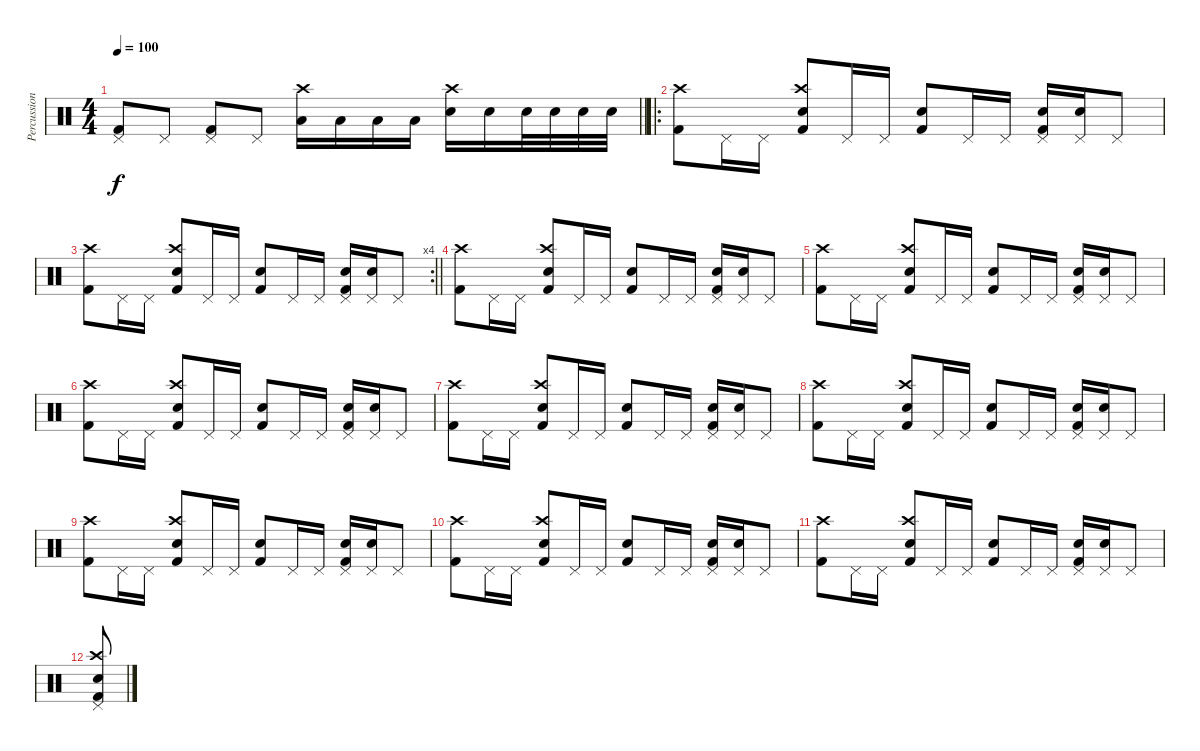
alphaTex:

\track ("Percussion" "Percussion") {instrument percussion}
\staff {score}
\articulation defaults
\ts (4 4)
\tempo 100
\clef neutral
\barLineRight lightlight
\ks c
("Pedal Hi-Hat (hit)" "Kick (hit) 2").8{dy f} "Pedal Hi-Hat (hit)".8 ("Pedal Hi-Hat (hit)" "Kick (hit) 2").8 "Pedal Hi-Hat (hit)".8 ("Low Tom (hit)" "Crash high (hit)").16 "Low Tom (hit)".16 "Low Tom (hit)".16 "Low Tom (hit)".16 ("Crash high (hit)" "Electric Snare (hit)").16 "Electric Snare (hit)".16 "Electric Snare (hit)".32 "Electric Snare (hit)".32 "Electric Snare (hit)".32 "Electric Snare (hit)".32 |
\ro
("Crash high (hit)" "Kick (hit) 2").8 "Pedal Hi-Hat (hit)".16 "Pedal Hi-Hat (hit)".16 ("Electric Snare (hit)" "Crash high (hit)" "Kick (hit) 2").8 "Pedal Hi-Hat (hit)".16 "Pedal Hi-Hat (hit)".16 ("Electric Snare (hit)" "Kick (hit) 2").8 "Pedal Hi-Hat (hit)".16 "Pedal Hi-Hat (hit)".16 ("Pedal Hi-Hat (hit)" "Electric Snare (hit)" "Kick (hit) 2").16 ("Pedal Hi-Hat (hit)" "Electric Snare (hit)").16 "Pedal Hi-Hat (hit)".8 |
\rc 4
\barLineRight lightlight
("Crash high (hit)" "Kick (hit) 2").8 "Pedal Hi-Hat (hit)".16 "Pedal Hi-Hat (hit)".16 ("Electric Snare (hit)" "Crash high (hit)" "Kick (hit) 2").8 "Pedal Hi-Hat (hit)".16 "Pedal Hi-Hat (hit)".16 ("Electric Snare (hit)" "Kick (hit) 2").8 "Pedal Hi-Hat (hit)".16 "Pedal Hi-Hat (hit)".16 ("Pedal Hi-Hat (hit)" "Electric Snare (hit)" "Kick (hit) 2").16 ("Pedal Hi-Hat (hit)" "Electric Snare (hit)").16 "Pedal Hi-Hat (hit)".8 |
("Crash high (hit)" "Kick (hit) 2").8 "Pedal Hi-Hat (hit)".16 "Pedal Hi-Hat (hit)".16 ("Electric Snare (hit)" "Crash high (hit)" "Kick (hit) 2").8 "Pedal Hi-Hat (hit)".16 "Pedal Hi-Hat (hit)".16 ("Electric Snare (hit)" "Kick (hit) 2").8 "Pedal Hi-Hat (hit)".16 "Pedal Hi-Hat (hit)".16 ("Pedal Hi-Hat (hit)" "Electric Snare (hit)" "Kick (hit) 2").16 ("Pedal Hi-Hat (hit)" "Electric Snare (hit)").16 "Pedal Hi-Hat (hit)".8 |
("Crash high (hit)" "Kick (hit) 2").8 "Pedal Hi-Hat (hit)".16 "Pedal Hi-Hat (hit)".16 ("Electric Snare (hit)" "Crash high (hit)" "Kick (hit) 2").8 "Pedal Hi-Hat (hit)".16 "Pedal Hi-Hat (hit)".16 ("Electric Snare (hit)" "Kick (hit) 2").8 "Pedal Hi-Hat (hit)".16 "Pedal Hi-Hat (hit)".16 ("Pedal Hi-Hat (hit)" "Electric Snare (hit)" "Kick (hit) 2").16 ("Pedal Hi-Hat (hit)" "Electric Snare (hit)").16 "Pedal Hi-Hat (hit)".8 |
("Crash high (hit)" "Kick (hit) 2").8 "Pedal Hi-Hat (hit)".16 "Pedal Hi-Hat (hit)".16 ("Electric Snare (hit)" "Crash high (hit)" "Kick (hit) 2").8 "Pedal Hi-Hat (hit)".16 "Pedal Hi-Hat (hit)".16 ("Electric Snare (hit)" "Kick (hit) 2").8 "Pedal Hi-Hat (hit)".16 "Pedal Hi-Hat (hit)".16 ("Pedal Hi-Hat (hit)" "Electric Snare (hit)" "Kick (hit) 2").16 ("Pedal Hi-Hat (hit)" "Electric Snare (hit)").16 "Pedal Hi-Hat (hit)".8 |
("Crash high (hit)" "Kick (hit) 2").8 "Pedal Hi-Hat (hit)".16 "Pedal Hi-Hat (hit)".16 ("Electric Snare (hit)" "Crash high (hit)" "Kick (hit) 2").8 "Pedal Hi-Hat (hit)".16 "Pedal Hi-Hat (hit)".16 ("Electric Snare (hit)" "Kick (hit) 2").8 "Pedal Hi-Hat (hit)".16 "Pedal Hi-Hat (hit)".16 ("Pedal Hi-Hat (hit)" "Electric Snare (hit)" "Kick (hit) 2").16 ("Pedal Hi-Hat (hit)" "Electric Snare (hit)").16 "Pedal Hi-Hat (hit)".8 |
("Crash high (hit)" "Kick (hit) 2").8 "Pedal Hi-Hat (hit)".16 "Pedal Hi-Hat (hit)".16 ("Electric Snare (hit)" "Crash high (hit)" "Kick (hit) 2").8 "Pedal Hi-Hat (hit)".16 "Pedal Hi-Hat (hit)".16 ("Electric Snare (hit)" "Kick (hit) 2").8 "Pedal Hi-Hat (hit)".16 "Pedal Hi-Hat (hit)".16 ("Pedal Hi-Hat (hit)" "Electric Snare (hit)" "Kick (hit) 2").16 ("Pedal Hi-Hat (hit)" "Electric Snare (hit)").16 "Pedal Hi-Hat (hit)".8 |
("Crash high (hit)" "Kick (hit) 2").8 "Pedal Hi-Hat (hit)".16 "Pedal Hi-Hat (hit)".16 ("Electric Snare (hit)" "Crash high (hit)" "Kick (hit) 2").8 "Pedal Hi-Hat (hit)".16 "Pedal Hi-Hat (hit)".16 ("Electric Snare (hit)" "Kick (hit) 2").8 "Pedal Hi-Hat (hit)".16 "Pedal Hi-Hat (hit)".16 ("Pedal Hi-Hat (hit)" "Electric Snare (hit)" "Kick (hit) 2").16 ("Pedal Hi-Hat (hit)" "Electric Snare (hit)").16 "Pedal Hi-Hat (hit)".8 |
("Crash high (hit)" "Kick (hit) 2").8 "Pedal Hi-Hat (hit)".16 "Pedal Hi-Hat (hit)".16 ("Electric Snare (hit)" "Crash high (hit)" "Kick (hit) 2").8 "Pedal Hi-Hat (hit)".16 "Pedal Hi-Hat (hit)".16 ("Electric Snare (hit)" "Kick (hit) 2").8 "Pedal Hi-Hat (hit)".16 "Pedal Hi-Hat (hit)".16 ("Pedal Hi-Hat (hit)" "Electric Snare (hit)" "Kick (hit) 2").16 ("Pedal Hi-Hat (hit)" "Electric Snare (hit)").16 "Pedal Hi-Hat (hit)".8 |
("Crash high (hit)" "Kick (hit) 2").8 "Pedal Hi-Hat (hit)".16 "Pedal Hi-Hat (hit)".16 ("Electric Snare (hit)" "Crash high (hit)" "Kick (hit) 2").8 "Pedal Hi-Hat (hit)".16 "Pedal Hi-Hat (hit)".16 ("Electric Snare (hit)" "Kick (hit) 2").8 "Pedal Hi-Hat (hit)".16 "Pedal Hi-Hat (hit)".16 ("Pedal Hi-Hat (hit)" "Electric Snare (hit)" "Kick (hit) 2").16 ("Pedal Hi-Hat (hit)" "Electric Snare (hit)").16 "Pedal Hi-Hat (hit)".8 |
("Pedal Hi-Hat (hit)" "Electric Snare (hit)" "Crash high (hit)" "Kick (hit) 2").8
